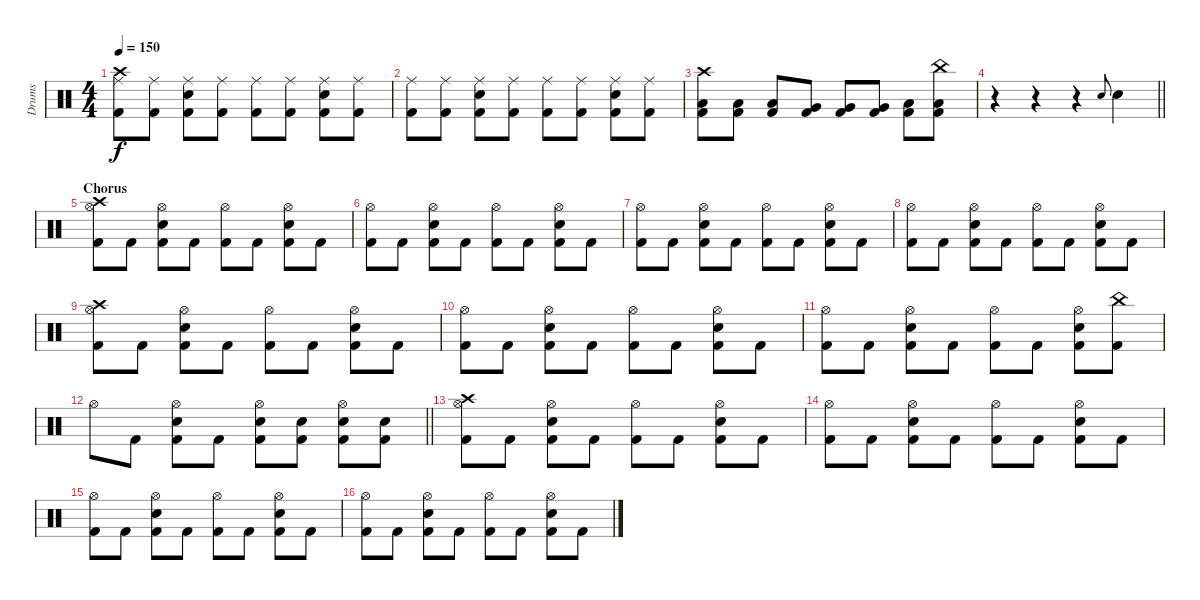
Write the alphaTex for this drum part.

\track ("Drums" "Drums") {instrument percussion}
\staff {score}
\articulation defaults
\ts (4 4)
\tempo 150
\clef neutral
\ks c
("Crash high (hit)" "Ride (middle)" "Kick (hit) 2").8{dy f} ("Ride (middle)" "Kick (hit) 2").8 ("Ride (middle)" "Snare (hit) 2" "Kick (hit) 2").8 ("Ride (middle)" "Kick (hit) 2").8 ("Ride (middle)" "Kick (hit) 2").8 ("Ride (middle)" "Kick (hit) 2").8 ("Ride (middle)" "Snare (hit) 2" "Kick (hit) 2").8 ("Ride (middle)" "Kick (hit) 2").8 |
("Ride (middle)" "Kick (hit) 2").8 ("Ride (middle)" "Kick (hit) 2").8 ("Ride (middle)" "Snare (hit) 2" "Kick (hit) 2").8 ("Ride (middle)" "Kick (hit) 2").8 ("Ride (middle)" "Kick (hit) 2").8 ("Ride (middle)" "Kick (hit) 2").8 ("Ride (middle)" "Snare (hit) 2" "Kick (hit) 2").8 ("Ride (middle)" "Kick (hit) 2").8 |
("Crash high (hit)" "Low Tom (hit)" "Kick (hit) 2").8 ("Low Tom (hit)" "Kick (hit) 2").8 ("Low Tom (hit)" "Kick (hit) 2").8 ("Very Low Tom (hit)" "Kick (hit) 2").8 ("Very Low Tom (hit)" "Kick (hit) 2").8 ("Very Low Tom (hit)" "Kick (hit) 2").8 ("Low Floor Tom (hit)" "Kick (hit) 2").8 ("China (hit)" "Low Floor Tom (hit)" "Kick (hit) 2").8 |
\barLineRight lightlight
r.4 r.4 r.4 "Snare (hit) 2".8{gr onbeat} "Snare (hit) 2".4 |
\section ("" "Chorus")
("Crash high (hit)" "Hi-Hat (open)" "Kick (hit) 2").8 "Kick (hit) 2".8 ("Hi-Hat (open)" "Snare (hit) 2" "Kick (hit) 2").8 "Kick (hit) 2".8 ("Hi-Hat (open)" "Kick (hit) 2").8 "Kick (hit) 2".8 ("Hi-Hat (open)" "Snare (hit) 2" "Kick (hit) 2").8 "Kick (hit) 2".8 |
("Hi-Hat (open)" "Kick (hit) 2").8 "Kick (hit) 2".8 ("Hi-Hat (open)" "Snare (hit) 2" "Kick (hit) 2").8 "Kick (hit) 2".8 ("Hi-Hat (open)" "Kick (hit) 2").8 "Kick (hit) 2".8 ("Hi-Hat (open)" "Snare (hit) 2" "Kick (hit) 2").8 "Kick (hit) 2".8 |
("Hi-Hat (open)" "Kick (hit) 2").8 "Kick (hit) 2".8 ("Hi-Hat (open)" "Snare (hit) 2" "Kick (hit) 2").8 "Kick (hit) 2".8 ("Hi-Hat (open)" "Kick (hit) 2").8 "Kick (hit) 2".8 ("Hi-Hat (open)" "Snare (hit) 2" "Kick (hit) 2").8 "Kick (hit) 2".8 |
("Hi-Hat (open)" "Kick (hit) 2").8 "Kick (hit) 2".8 ("Hi-Hat (open)" "Snare (hit) 2" "Kick (hit) 2").8 "Kick (hit) 2".8 ("Hi-Hat (open)" "Kick (hit) 2").8 "Kick (hit) 2".8 ("Hi-Hat (open)" "Snare (hit) 2" "Kick (hit) 2").8 "Kick (hit) 2".8 |
("Crash high (hit)" "Hi-Hat (open)" "Kick (hit) 2").8 "Kick (hit) 2".8 ("Hi-Hat (open)" "Snare (hit) 2" "Kick (hit) 2").8 "Kick (hit) 2".8 ("Hi-Hat (open)" "Kick (hit) 2").8 "Kick (hit) 2".8 ("Hi-Hat (open)" "Snare (hit) 2" "Kick (hit) 2").8 "Kick (hit) 2".8 |
("Hi-Hat (open)" "Kick (hit) 2").8 "Kick (hit) 2".8 ("Hi-Hat (open)" "Snare (hit) 2" "Kick (hit) 2").8 "Kick (hit) 2".8 ("Hi-Hat (open)" "Kick (hit) 2").8 "Kick (hit) 2".8 ("Hi-Hat (open)" "Snare (hit) 2" "Kick (hit) 2").8 "Kick (hit) 2".8 |
("Hi-Hat (open)" "Kick (hit) 2").8 "Kick (hit) 2".8 ("Hi-Hat (open)" "Snare (hit) 2" "Kick (hit) 2").8 "Kick (hit) 2".8 ("Hi-Hat (open)" "Kick (hit) 2").8 "Kick (hit) 2".8 ("Hi-Hat (open)" "Snare (hit) 2" "Kick (hit) 2").8 ("China (hit)" "Kick (hit) 2").8 |
\barLineRight lightlight "Hi-Hat (open)".8 "Kick (hit) 2".8
("Hi-Hat (open)" "Snare (hit) 2" "Kick (hit) 2").8 "Kick (hit) 2".8 ("Hi-Hat (open)" "Snare (hit) 2" "Kick (hit) 2").8 ("Snare (hit) 2" "Kick (hit) 2").8 ("Hi-Hat (open)" "Snare (hit) 2" "Kick (hit) 2").8 ("Snare (hit) 2" "Kick (hit) 2").8 |
("Crash high (hit)" "Hi-Hat (open)" "Kick (hit) 2").8 "Kick (hit) 2".8 ("Hi-Hat (open)" "Snare (hit) 2" "Kick (hit) 2").8 "Kick (hit) 2".8 ("Hi-Hat (open)" "Kick (hit) 2").8 "Kick (hit) 2".8 ("Hi-Hat (open)" "Snare (hit) 2" "Kick (hit) 2").8 "Kick (hit) 2".8 |
("Hi-Hat (open)" "Kick (hit) 2").8 "Kick (hit) 2".8 ("Hi-Hat (open)" "Snare (hit) 2" "Kick (hit) 2").8 "Kick (hit) 2".8 ("Hi-Hat (open)" "Kick (hit) 2").8 "Kick (hit) 2".8 ("Hi-Hat (open)" "Snare (hit) 2" "Kick (hit) 2").8 "Kick (hit) 2".8 |
("Hi-Hat (open)" "Kick (hit) 2").8 "Kick (hit) 2".8 ("Hi-Hat (open)" "Snare (hit) 2" "Kick (hit) 2").8 "Kick (hit) 2".8 ("Hi-Hat (open)" "Kick (hit) 2").8 "Kick (hit) 2".8 ("Hi-Hat (open)" "Snare (hit) 2" "Kick (hit) 2").8 "Kick (hit) 2".8 |
("Hi-Hat (open)" "Kick (hit) 2").8 "Kick (hit) 2".8 ("Hi-Hat (open)" "Snare (hit) 2" "Kick (hit) 2").8 "Kick (hit) 2".8 ("Hi-Hat (open)" "Kick (hit) 2").8 "Kick (hit) 2".8 ("Hi-Hat (open)" "Snare (hit) 2" "Kick (hit) 2").8 "Kick (hit) 2".8
